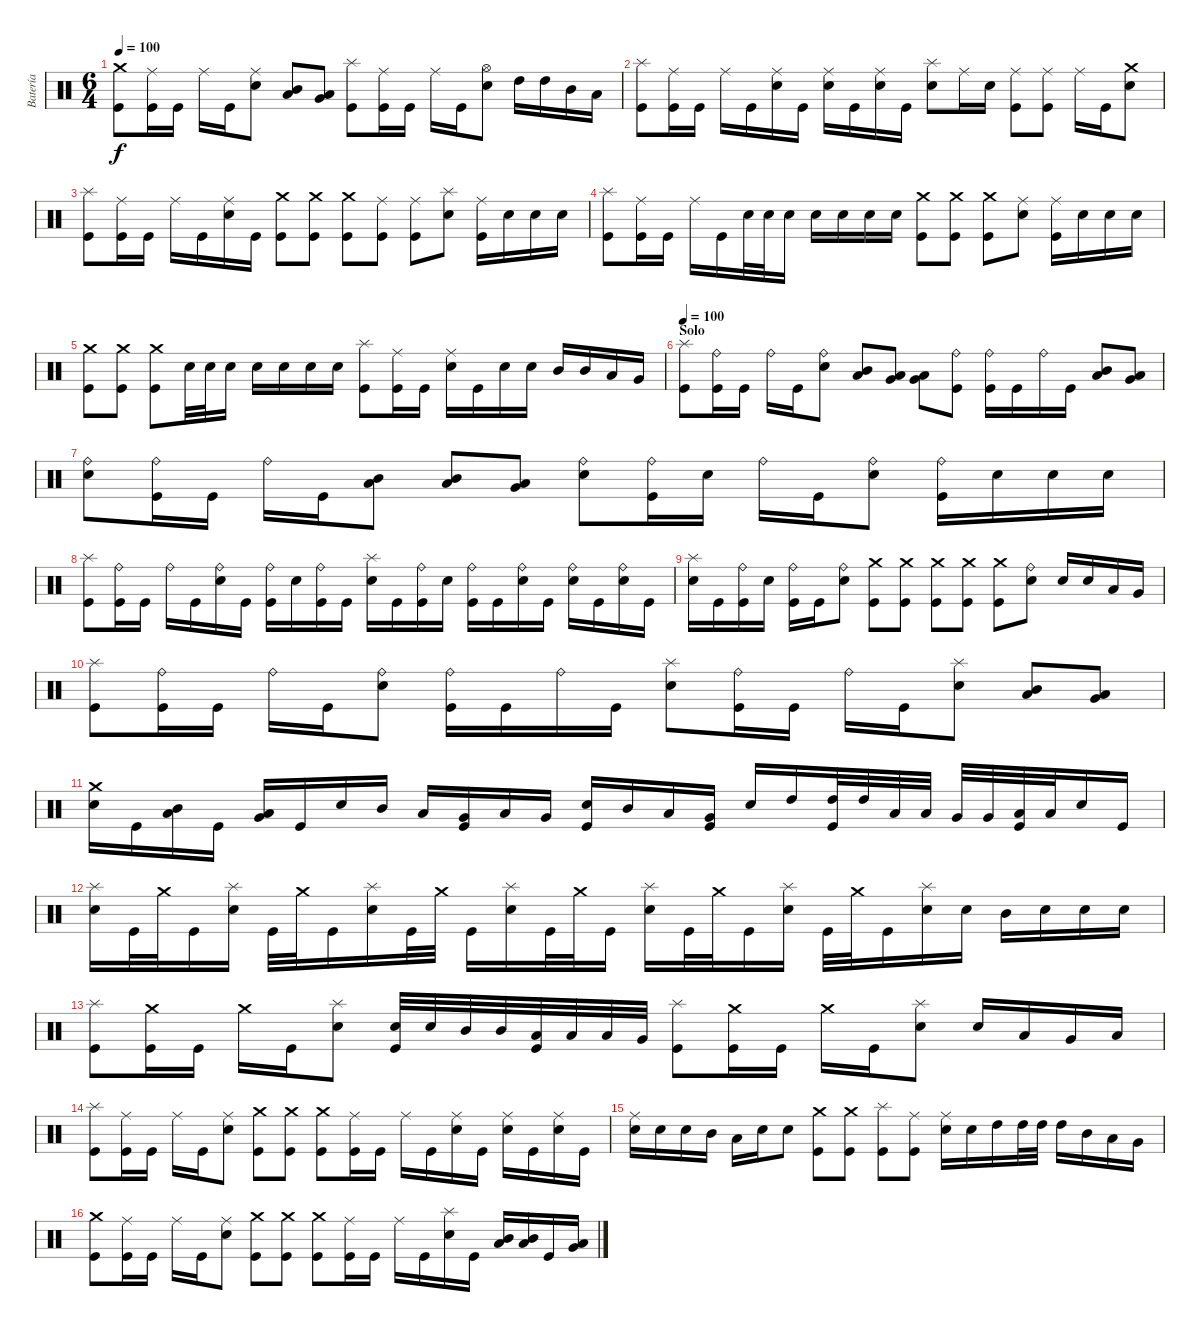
\track ("Batería" "Batería") {instrument percussion}
\staff {score}
\articulation defaults
\ts (6 4)
\tempo 100
\clef neutral
\ks c
("Crash medium (hit)" "Kick (hit)").8{dy f} ("Ride (middle)" "Kick (hit)").16 "Kick (hit)".16 "Ride (middle)".16 "Kick (hit)".16 ("Ride (middle)" "Electric Snare (hit)").8 ("Mid Tom (hit)" "Low Tom (hit)").8 ("Low Tom (hit)" "Very Low Tom (hit)").8 ("Splash (hit)" "Kick (hit)").8 ("Ride (middle)" "Kick (hit)").16 "Kick (hit)".16 "Ride (middle)".16 "Kick (hit)".16 ("Hi-Hat (open)" "Electric Snare (hit)").8 "High Tom (hit)".16 "High Tom (hit)".16 "Mid Tom (hit)".16 "Low Tom (hit)".16 |
("Splash (hit)" "Kick (hit)").8 ("Ride (middle)" "Kick (hit)").16 "Kick (hit)".16 "Ride (middle)".16 "Kick (hit)".16 ("Ride (middle)" "Electric Snare (hit)").16 "Kick (hit)".16 ("Ride (middle)" "Electric Snare (hit)").16 "Kick (hit)".16 ("Ride (middle)" "Electric Snare (hit)").16 "Kick (hit)".16 ("Splash (hit)" "Electric Snare (hit)").8 "Ride (middle)".16 "Electric Snare (hit)".16 ("Ride (middle)" "Kick (hit)").8 ("Ride (middle)" "Kick (hit)").8 "Ride (middle)".16 "Kick (hit)".16 ("Crash medium (hit)" "Electric Snare (hit)").8 |
("Splash (hit)" "Kick (hit)").8 ("Ride (middle)" "Kick (hit)").16 "Kick (hit)".16 "Ride (middle)".16 "Kick (hit)".16 ("Ride (middle)" "Electric Snare (hit)").16 "Kick (hit)".16 ("Crash medium (hit)" "Kick (hit)").8 ("Crash medium (hit)" "Kick (hit)").8 ("Crash medium (hit)" "Kick (hit)").8 ("Ride (middle)" "Kick (hit)").8 ("Ride (middle)" "Kick (hit)").8 ("Splash (hit)" "Electric Snare (hit)").8 ("Ride (middle)" "Kick (hit)").16 "Electric Snare (hit)".16 "Electric Snare (hit)".16 "Electric Snare (hit)".16 |
("Splash (hit)" "Kick (hit)").8 ("Ride (middle)" "Kick (hit)").16 "Kick (hit)".16 "Ride (middle)".16 "Kick (hit)".16 "Electric Snare (hit)".32 "Electric Snare (hit)".32 "Electric Snare (hit)".16 "Electric Snare (hit)".16 "Electric Snare (hit)".16 "Electric Snare (hit)".16 "Electric Snare (hit)".16 ("Crash medium (hit)" "Kick (hit)").8 ("Crash medium (hit)" "Kick (hit)").8 ("Crash medium (hit)" "Kick (hit)").8 ("Ride (middle)" "Electric Snare (hit)").8 ("Ride (middle)" "Kick (hit)").16 "Electric Snare (hit)".16 "Electric Snare (hit)".16 "Electric Snare (hit)".16 |
("Crash medium (hit)" "Kick (hit)").8 ("Crash medium (hit)" "Kick (hit)").8 ("Crash medium (hit)" "Kick (hit)").8 "Electric Snare (hit)".32 "Electric Snare (hit)".32 "Electric Snare (hit)".16 "Electric Snare (hit)".16 "Electric Snare (hit)".16 "Electric Snare (hit)".16 "Electric Snare (hit)".16 ("Splash (hit)" "Kick (hit)").8 ("Ride (middle)" "Kick (hit)").16 "Kick (hit)".16 ("Ride (middle)" "Electric Snare (hit)").16 "Kick (hit)".16 "Electric Snare (hit)".16 "Electric Snare (hit)".16 "Mid Tom (hit)".16 "Mid Tom (hit)".16 "Low Tom (hit)".16 "Very Low Tom (hit)".16 |
\section ("" "Solo")
\tempo 100
("Splash (hit)" "Kick (hit)").8 ("Ride (bell)" "Kick (hit)").16 "Kick (hit)".16 "Ride (bell)".16 "Kick (hit)".16 ("Ride (bell)" "Electric Snare (hit)").8 ("Mid Tom (hit)" "Low Tom (hit)").8 ("Low Tom (hit)" "Very Low Tom (hit)").8 ("Very Low Tom (hit)" "Low Floor Tom (hit)").8 ("Ride (bell)" "Kick (hit)").8 ("Ride (bell)" "Kick (hit)").16 "Kick (hit)".16 "Ride (bell)".16 "Kick (hit)".16 ("Mid Tom (hit)" "Low Tom (hit)").8 ("Low Tom (hit)" "Very Low Tom (hit)").8 |
("Ride (bell)" "Electric Snare (hit)").8 ("Ride (bell)" "Kick (hit)").16 "Kick (hit)".16 "Ride (bell)".16 "Kick (hit)".16 ("Mid Tom (hit)" "Low Tom (hit)").8 ("Mid Tom (hit)" "Low Tom (hit)").8 ("Low Tom (hit)" "Very Low Tom (hit)").8 ("Ride (bell)" "Electric Snare (hit)").8 ("Ride (bell)" "Kick (hit)").16 "Electric Snare (hit)".16 "Ride (bell)".16 "Kick (hit)".16 ("Ride (bell)" "Electric Snare (hit)").8 ("Ride (bell)" "Kick (hit)").16 "Electric Snare (hit)".16 "Electric Snare (hit)".16 "Electric Snare (hit)".16 |
("Splash (hit)" "Kick (hit)").8 ("Ride (bell)" "Kick (hit)").16 "Kick (hit)".16 "Ride (bell)".16 "Kick (hit)".16 ("Ride (bell)" "Electric Snare (hit)").16 "Kick (hit)".16 ("Ride (bell)" "Kick (hit)").16 "Electric Snare (hit)".16 ("Ride (bell)" "Kick (hit)").16 "Kick (hit)".16 ("Splash (hit)" "Electric Snare (hit)").16 "Kick (hit)".16 ("Ride (bell)" "Kick (hit)").16 "Electric Snare (hit)".16 ("Ride (bell)" "Kick (hit)").16 "Kick (hit)".16 ("Ride (bell)" "Electric Snare (hit)").16 "Kick (hit)".16 ("Ride (bell)" "Electric Snare (hit)").16 "Kick (hit)".16 ("Ride (bell)" "Electric Snare (hit)").16 "Kick (hit)".16 |
("Splash (hit)" "Electric Snare (hit)").16 "Kick (hit)".16 ("Ride (bell)" "Kick (hit)").16 "Electric Snare (hit)".16 ("Ride (bell)" "Kick (hit)").16 "Kick (hit)".16 ("Ride (bell)" "Electric Snare (hit)").8 ("Crash medium (hit)" "Kick (hit)").8 ("Crash medium (hit)" "Kick (hit)").8 ("Crash medium (hit)" "Kick (hit)").8 ("Crash medium (hit)" "Kick (hit)").8 ("Crash medium (hit)" "Kick (hit)").8 ("Ride (bell)" "Electric Snare (hit)").8 "Electric Snare (hit)".16 "Electric Snare (hit)".16 "Low Tom (hit)".16 "Very Low Tom (hit)".16 |
("Splash (hit)" "Kick (hit)").8 ("Ride (bell)" "Kick (hit)").16 "Kick (hit)".16 "Ride (bell)".16 "Kick (hit)".16 ("Ride (bell)" "Electric Snare (hit)").8 ("Ride (bell)" "Kick (hit)").16 "Kick (hit)".16 "Ride (bell)".16 "Kick (hit)".16 ("Splash (hit)" "Electric Snare (hit)").8 ("Ride (bell)" "Kick (hit)").16 "Kick (hit)".16 "Ride (bell)".16 "Kick (hit)".16 ("Splash (hit)" "Electric Snare (hit)").8 ("Mid Tom (hit)" "Low Tom (hit)").8 ("Low Tom (hit)" "Very Low Tom (hit)").8 |
("Crash medium (hit)" "Electric Snare (hit)").16 "Kick (hit)".16 ("Mid Tom (hit)" "Low Tom (hit)").16 "Kick (hit)".16 ("Low Tom (hit)" "Very Low Tom (hit)").16 "Kick (hit)".16 "Electric Snare (hit)".16 "Mid Tom (hit)".16 "Low Tom (hit)".16 ("Very Low Tom (hit)" "Kick (hit)").16 "Low Tom (hit)".16 "Very Low Tom (hit)".16 ("Electric Snare (hit)" "Kick (hit)").16 "Mid Tom (hit)".16 "Low Tom (hit)".16 ("Very Low Tom (hit)" "Kick (hit)").16 "Electric Snare (hit)".16 "High Tom (hit)".16 ("High Tom (hit)" "Kick (hit)").32 "High Tom (hit)".32 "Low Tom (hit)".32 "Low Tom (hit)".32 "Very Low Tom (hit)".32 "Very Low Tom (hit)".32 ("Low Floor Tom (hit)" "Kick (hit)").32 "Low Floor Tom (hit)".32 "Electric Snare (hit)".16 "Kick (hit)".16 |
("Splash (hit)" "Electric Snare (hit)").16 "Kick (hit)".32 "Crash medium (hit)".32 "Kick (hit)".16 ("Splash (hit)" "Electric Snare (hit)").16 "Kick (hit)".32 "Crash medium (hit)".32 "Kick (hit)".16 ("Splash (hit)" "Electric Snare (hit)").16 "Kick (hit)".32 "Crash medium (hit)".32 "Kick (hit)".16 ("Splash (hit)" "Electric Snare (hit)").16 "Kick (hit)".32 "Crash medium (hit)".32 "Kick (hit)".16 ("Splash (hit)" "Electric Snare (hit)").16 "Kick (hit)".32 "Crash medium (hit)".32 "Kick (hit)".16 ("Splash (hit)" "Electric Snare (hit)").16 "Kick (hit)".32 "Crash medium (hit)".32 "Kick (hit)".16 ("Splash (hit)" "Electric Snare (hit)").16 "Electric Snare (hit)".16 "Mid Tom (hit)".16 "Electric Snare (hit)".16 "Electric Snare (hit)".16 "Electric Snare (hit)".16 |
("Splash (hit)" "Kick (hit)").8 ("Crash medium (hit)" "Kick (hit)").16 "Kick (hit)".16 "Crash medium (hit)".16 "Kick (hit)".16 ("Splash (hit)" "Electric Snare (hit)").8 ("Electric Snare (hit)" "Kick (hit)").32 "Electric Snare (hit)".32 "Mid Tom (hit)".32 "Mid Tom (hit)".32 ("Low Tom (hit)" "Kick (hit)").32 "Low Tom (hit)".32 "Low Floor Tom (hit)".32 "Very Low Tom (hit)".32 ("Splash (hit)" "Kick (hit)").8 ("Crash medium (hit)" "Kick (hit)").16 "Kick (hit)".16 "Crash medium (hit)".16 "Kick (hit)".16 ("Splash (hit)" "Electric Snare (hit)").8 "Electric Snare (hit)".16 "Low Tom (hit)".16 "Very Low Tom (hit)".16 "Low Floor Tom (hit)".16 |
("Splash (hit)" "Kick (hit)").8 ("Ride (middle)" "Kick (hit)").16 "Kick (hit)".16 "Ride (middle)".16 "Kick (hit)".16 ("Ride (middle)" "Electric Snare (hit)").8 ("Crash medium (hit)" "Kick (hit)").8 ("Crash medium (hit)" "Kick (hit)").8 ("Crash medium (hit)" "Kick (hit)").8 ("Ride (middle)" "Kick (hit)").16 "Kick (hit)".16 "Ride (middle)".16 "Kick (hit)".16 ("Ride (middle)" "Electric Snare (hit)").16 "Kick (hit)".16 ("Ride (middle)" "Electric Snare (hit)").16 "Kick (hit)".16 ("Ride (middle)" "Electric Snare (hit)").16 "Kick (hit)".16 |
("Ride (middle)" "Electric Snare (hit)").16 "Electric Snare (hit)".16 "Electric Snare (hit)".16 "Mid Tom (hit)".16 "Low Tom (hit)".16 "Electric Snare (hit)".16 "Electric Snare (hit)".8 ("Crash medium (hit)" "Kick (hit)").8 ("Crash medium (hit)" "Kick (hit)").8 ("Splash (hit)" "Kick (hit)").8 ("Ride (middle)" "Kick (hit)").8 ("Ride (middle)" "Electric Snare (hit)").16 "Electric Snare (hit)".16 "High Tom (hit)".16 "High Tom (hit)".32 "High Tom (hit)".32 "High Tom (hit)".16 "Mid Tom (hit)".16 "Low Tom (hit)".16 "Very Low Tom (hit)".16 |
("Crash medium (hit)" "Kick (hit)").8 ("Ride (middle)" "Kick (hit)").16 "Kick (hit)".16 "Ride (middle)".16 "Kick (hit)".16 ("Ride (middle)" "Electric Snare (hit)").8 ("Crash medium (hit)" "Kick (hit)").8 ("Crash medium (hit)" "Kick (hit)").8 ("Crash medium (hit)" "Kick (hit)").8 ("Ride (middle)" "Kick (hit)").16 "Kick (hit)".16 "Ride (middle)".16 "Kick (hit)".16 ("Splash (hit)" "Electric Snare (hit)").16 "Kick (hit)".16 ("Mid Tom (hit)" "Low Tom (hit)").16 ("Mid Tom (hit)" "Low Tom (hit)").16 "Kick (hit)".16 ("Low Tom (hit)" "Very Low Tom (hit)").16
